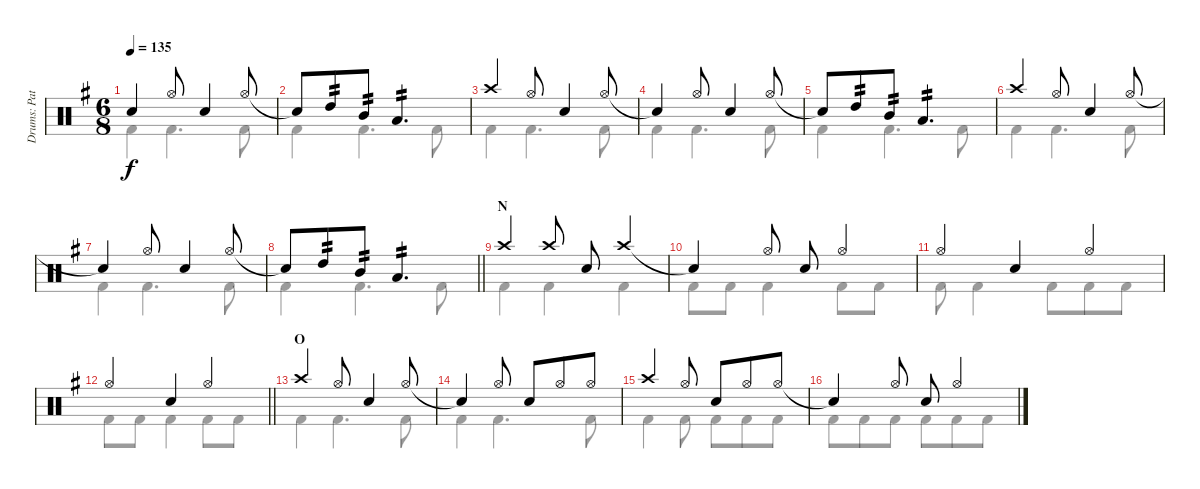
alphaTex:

\track ("Drums: Pat" "Drums: Pat") {instrument percussion}
\staff {score}
\articulation defaults
\voice
\ts (6 8)
\tempo 135
\clef neutral
\ks g "Snare (hit)"{t}.4{dy f} "Hi-Hat (open)".8 "Snare (hit) 2".4 "Hi-Hat (open)".8
|
"Snare (hit)"{t}.8 "High Tom (hit)".8{tp 2} "Mid Tom (hit)".8{tp 2} "Low Tom (hit)".4{d tp 2} |
"Crash high (hit)".4 "Hi-Hat (open)".8 "Snare (hit) 2".4 "Hi-Hat (open)".8 |
"Snare (hit)"{t}.4 "Hi-Hat (open)".8 "Snare (hit) 2".4 "Hi-Hat (open)".8 |
"Snare (hit)"{t}.8 "High Tom (hit)".8{tp 2} "Mid Tom (hit)".8{tp 2} "Low Tom (hit)".4{d tp 2} |
"Crash high (hit)".4 "Hi-Hat (open)".8 "Snare (hit) 2".4 "Hi-Hat (open)".8 |
"Snare (hit)"{t}.4 "Hi-Hat (open)".8 "Snare (hit) 2".4 "Hi-Hat (open)".8 |
\barLineRight lightlight "Snare (hit)"{t}.8 "High Tom (hit)".8{tp 2} "Mid Tom (hit)".8{tp 2} "Low Tom (hit)".4{d tp 2}
|
\section ("" "N")
"Crash high (hit)".4 "Crash high (hit)".8 "Electric Snare (hit)".8 "Crash high (hit)".4 |
"Snare (hit)"{t}.4 "Hi-Hat (open)".8 "Snare (hit) 2".8 "Hi-Hat (open)".4 |
"Hi-Hat (open)".4 "Snare (hit) 2".4 "Hi-Hat (open)".4 |
\barLineRight lightlight "Hi-Hat (open)".4 "Snare (hit) 2".4 "Hi-Hat (open)".4
|
\section ("" "O")
"Crash high (hit)".4 "Hi-Hat (open)".8 "Snare (hit) 2".4 "Hi-Hat (open)".8 |
"Snare (hit)"{t}.4 "Hi-Hat (open)".8 "Snare (hit) 2".8 "Hi-Hat (open)".8 "Hi-Hat (open)".8 |
"Crash high (hit)".4 "Hi-Hat (open)".8 "Snare (hit) 2".8 "Hi-Hat (open)".8 "Hi-Hat (open)".8 |
"Snare (hit)"{t}.4 "Hi-Hat (open)".8 "Snare (hit) 2".8 "Hi-Hat (open)".4
\voice
\clef neutral
\ottava regular
\simile none
\ks g "Kick (hit) 2".4{dy f} "Kick (hit) 2".4{d} "Kick (hit) 2".8
|
"Kick (hit) 2".4 "Kick (hit) 2".4{d} "Kick (hit) 2".8 |
"Kick (hit) 2".4 "Kick (hit) 2".4{d} "Kick (hit) 2".8 |
"Kick (hit) 2".4 "Kick (hit) 2".4{d} "Kick (hit) 2".8 |
"Kick (hit) 2".4 "Kick (hit) 2".4{d} "Kick (hit) 2".8 |
"Kick (hit) 2".4 "Kick (hit) 2".4{d} "Kick (hit) 2".8 |
"Kick (hit) 2".4 "Kick (hit) 2".4{d} "Kick (hit) 2".8 |
\barLineRight lightlight "Kick (hit) 2".4 "Kick (hit) 2".4{d} "Kick (hit) 2".8
|
"Kick (hit) 2".4 "Kick (hit) 2".4 "Kick (hit) 2".4 |
"Kick (hit) 2".8 "Kick (hit) 2".8 "Kick (hit) 2".4 "Kick (hit) 2".8 "Kick (hit) 2".8 |
"Kick (hit) 2".8 "Kick (hit) 2".4 "Kick (hit) 2".8 "Kick (hit) 2".8 "Kick (hit) 2".8 |
\barLineRight lightlight "Kick (hit) 2".8 "Kick (hit) 2".8 "Kick (hit) 2".4 "Kick (hit) 2".8 "Kick (hit) 2".8
|
"Kick (hit) 2".4 "Kick (hit) 2".4{d} "Kick (hit) 2".8 |
"Kick (hit) 2".4 "Kick (hit) 2".4{d} "Kick (hit) 2".8 |
"Kick (hit) 2".4 "Kick (hit) 2".8 "Kick (hit) 2".8 "Kick (hit) 2".8 "Kick (hit) 2".8 |
"Kick (hit) 2".8 "Kick (hit) 2".8 "Kick (hit) 2".8 "Kick (hit) 2".8 "Kick (hit) 2".8 "Kick (hit) 2".8
